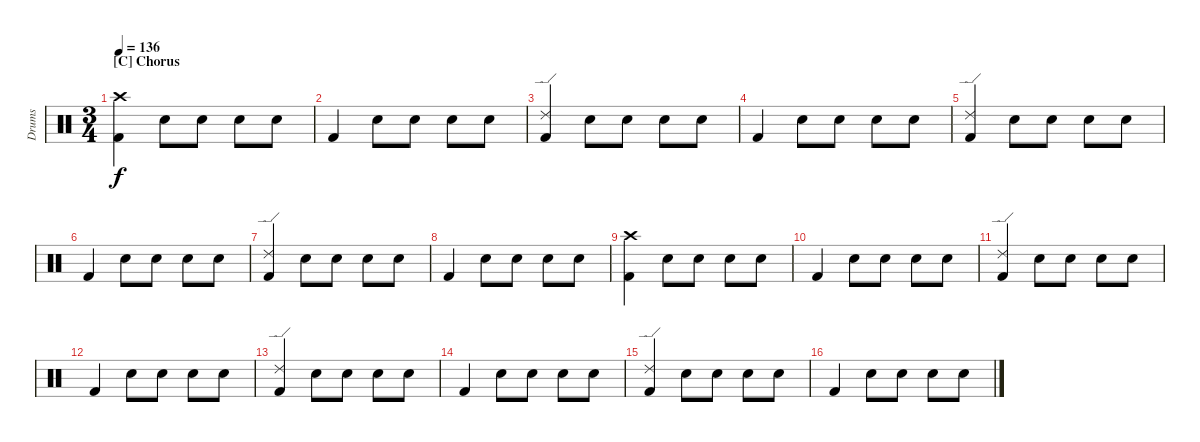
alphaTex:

\track ("Drums" "Drums") {instrument percussion}
\staff {score}
\articulation defaults
\ts (3 4)
\section ("" "[C] Chorus")
\tempo 136
\clef neutral
\ks aminor
("Crash high (hit)" "Kick (hit) 2").4{dy f} "Snare (hit) 2".8 "Snare (hit) 2".8 "Snare (hit) 2".8 "Snare (hit) 2".8 |
"Kick (hit) 2".4 "Snare (hit) 2".8 "Snare (hit) 2".8 "Snare (hit) 2".8 "Snare (hit) 2".8 |
("Ride (edge) 2" "Kick (hit) 2").4 "Snare (hit) 2".8 "Snare (hit) 2".8 "Snare (hit) 2".8 "Snare (hit) 2".8 |
"Kick (hit) 2".4 "Snare (hit) 2".8 "Snare (hit) 2".8 "Snare (hit) 2".8 "Snare (hit) 2".8 |
("Ride (edge) 2" "Kick (hit) 2").4 "Snare (hit) 2".8 "Snare (hit) 2".8 "Snare (hit) 2".8 "Snare (hit) 2".8 |
"Kick (hit) 2".4 "Snare (hit) 2".8 "Snare (hit) 2".8 "Snare (hit) 2".8 "Snare (hit) 2".8 |
("Ride (edge) 2" "Kick (hit) 2").4 "Snare (hit) 2".8 "Snare (hit) 2".8 "Snare (hit) 2".8 "Snare (hit) 2".8 |
"Kick (hit) 2".4 "Snare (hit) 2".8 "Snare (hit) 2".8 "Snare (hit) 2".8 "Snare (hit) 2".8 |
("Crash high (hit)" "Kick (hit) 2").4 "Snare (hit) 2".8 "Snare (hit) 2".8 "Snare (hit) 2".8 "Snare (hit) 2".8 |
"Kick (hit) 2".4 "Snare (hit) 2".8 "Snare (hit) 2".8 "Snare (hit) 2".8 "Snare (hit) 2".8 |
("Ride (edge) 2" "Kick (hit) 2").4 "Snare (hit) 2".8 "Snare (hit) 2".8 "Snare (hit) 2".8 "Snare (hit) 2".8 |
"Kick (hit) 2".4 "Snare (hit) 2".8 "Snare (hit) 2".8 "Snare (hit) 2".8 "Snare (hit) 2".8 |
("Ride (edge) 2" "Kick (hit) 2").4 "Snare (hit) 2".8 "Snare (hit) 2".8 "Snare (hit) 2".8 "Snare (hit) 2".8 |
"Kick (hit) 2".4 "Snare (hit) 2".8 "Snare (hit) 2".8 "Snare (hit) 2".8 "Snare (hit) 2".8 |
("Ride (edge) 2" "Kick (hit) 2").4 "Snare (hit) 2".8 "Snare (hit) 2".8 "Snare (hit) 2".8 "Snare (hit) 2".8 |
"Kick (hit) 2".4 "Snare (hit) 2".8 "Snare (hit) 2".8 "Snare (hit) 2".8 "Snare (hit) 2".8
